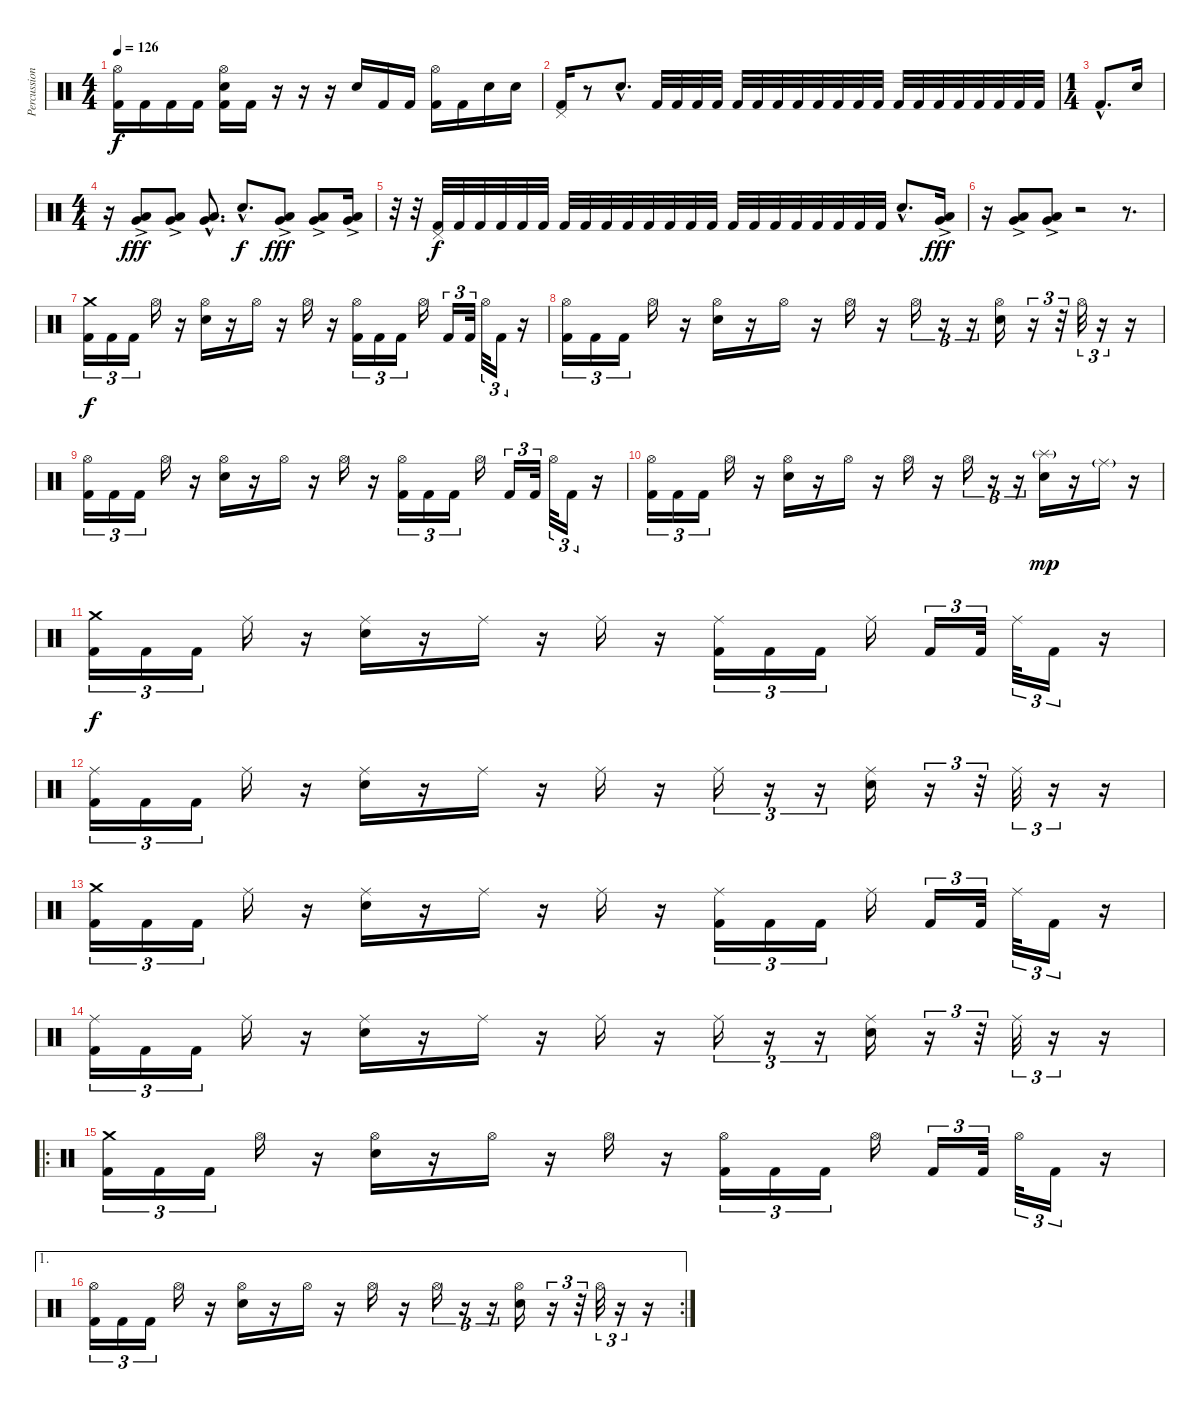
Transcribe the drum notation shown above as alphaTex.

\track ("Percussions" "Percussion") {instrument percussion}
\staff {score}
\articulation defaults
\ts (4 4)
\tempo 126
\clef neutral
\ks c
("Hi-Hat (open)" "Kick (hit) 2").16{dy f} "Kick (hit) 2".16 "Kick (hit) 2".16 "Kick (hit) 2".16 ("Hi-Hat (open)" "Electric Snare (hit)" "Kick (hit) 2").16 "Kick (hit) 2".16 r.16 r.16 r.16 "Electric Snare (hit)".16 "Kick (hit) 2".16 "Kick (hit) 2".16 ("Hi-Hat (open)" "Kick (hit) 2").16 "Kick (hit) 2".16 "Electric Snare (hit)".16 "Electric Snare (hit)".16 |
("Pedal Hi-Hat (hit)" "Kick (hit) 2").16 r.8 "Electric Snare (hit)"{hac}.8{d} "Kick (hit) 2".32 "Kick (hit) 2".32 "Kick (hit) 2".32 "Kick (hit) 2".32 "Kick (hit) 2".32 "Kick (hit) 2".32 "Kick (hit) 2".32 "Kick (hit) 2".32 "Kick (hit) 2".32 "Kick (hit) 2".32 "Kick (hit) 2".32 "Kick (hit) 2".32 "Kick (hit) 2".32 "Kick (hit) 2".32 "Kick (hit) 2".32 "Kick (hit) 2".32 "Kick (hit) 2".32 "Kick (hit) 2".32 "Kick (hit) 2".32 "Kick (hit) 2".32 |
\ts (1 4)
"Kick (hit) 2"{hac}.8{d} "Electric Snare (hit)".16 |
\ts (4 4)
r.16 ("Very Low Tom (hit)"{ac} "Low Floor Tom (hit)"{ac}).8{dy fff} ("Very Low Tom (hit)"{ac} "Low Floor Tom (hit)"{ac}).8 ("Very Low Tom (hit)"{hac} "Low Floor Tom (hit)"{hac}).8{d} "Electric Snare (hit)"{hac}.8{d dy f} ("Very Low Tom (hit)"{ac} "Low Floor Tom (hit)"{ac}).8{dy fff} ("Very Low Tom (hit)"{ac} "Low Floor Tom (hit)"{ac}).8 ("Very Low Tom (hit)"{ac} "Low Floor Tom (hit)"{ac}).16 |
r.32 r.32 ("Pedal Hi-Hat (hit)" "Kick (hit) 2").32{dy f} "Kick (hit) 2".32 "Kick (hit) 2".32 "Kick (hit) 2".32 "Kick (hit) 2".32 "Kick (hit) 2".32 "Kick (hit) 2".32 "Kick (hit) 2".32 "Kick (hit) 2".32 "Kick (hit) 2".32 "Kick (hit) 2".32 "Kick (hit) 2".32 "Kick (hit) 2".32 "Kick (hit) 2".32 "Kick (hit) 2".32 "Kick (hit) 2".32 "Kick (hit) 2".32 "Kick (hit) 2".32 "Kick (hit) 2".32 "Kick (hit) 2".32 "Kick (hit) 2".32 "Kick (hit) 2".32 "Electric Snare (hit)"{hac}.8{d} ("Very Low Tom (hit)"{ac} "Low Floor Tom (hit)"{ac}).16{dy fff} |
r.16 ("Very Low Tom (hit)"{ac} "Low Floor Tom (hit)"{ac}).8 ("Very Low Tom (hit)"{ac} "Low Floor Tom (hit)"{ac}).8 r.2 r.8{d} |
("Crash medium (hit)" "Kick (hit) 2").16{tu (3 2) dy f} "Kick (hit) 2".16{tu (3 2)} "Kick (hit) 2".16{tu (3 2)} "Hi-Hat (open)".16 r.16 ("Hi-Hat (open)" "Electric Snare (hit)").16 r.16 "Hi-Hat (open)".16 r.16 "Hi-Hat (open)".16 r.16 ("Hi-Hat (open)" "Kick (hit) 2").16{tu (3 2)} "Kick (hit) 2".16{tu (3 2)} "Kick (hit) 2".16{tu (3 2)} "Hi-Hat (open)".16 "Kick (hit) 2".16{tu (3 2)} "Kick (hit) 2".32{tu (3 2)} "Hi-Hat (open)".32{tu (3 2)} "Kick (hit) 2".16{tu (3 2)} r.16 |
("Hi-Hat (open)" "Kick (hit) 2").16{tu (3 2)} "Kick (hit) 2".16{tu (3 2)} "Kick (hit) 2".16{tu (3 2)} "Hi-Hat (open)".16 r.16 ("Hi-Hat (open)" "Electric Snare (hit)").16 r.16 "Hi-Hat (open)".16 r.16 "Hi-Hat (open)".16 r.16 "Hi-Hat (open)".16{tu (3 2)} r.16{tu (3 2)} r.16{tu (3 2)} ("Hi-Hat (open)" "Electric Snare (hit)").16 r.16{tu (3 2)} r.32{tu (3 2)} "Hi-Hat (open)".32{tu (3 2)} r.16{tu (3 2)} r.16 |
("Hi-Hat (open)" "Kick (hit) 2").16{tu (3 2)} "Kick (hit) 2".16{tu (3 2)} "Kick (hit) 2".16{tu (3 2)} "Hi-Hat (open)".16 r.16 ("Hi-Hat (open)" "Electric Snare (hit)").16 r.16 "Hi-Hat (open)".16 r.16 "Hi-Hat (open)".16 r.16 ("Hi-Hat (open)" "Kick (hit) 2").16{tu (3 2)} "Kick (hit) 2".16{tu (3 2)} "Kick (hit) 2".16{tu (3 2)} "Hi-Hat (open)".16 "Kick (hit) 2".16{tu (3 2)} "Kick (hit) 2".32{tu (3 2)} "Hi-Hat (open)".32{tu (3 2)} "Kick (hit) 2".16{tu (3 2)} r.16 |
("Hi-Hat (open)" "Kick (hit) 2").16{tu (3 2)} "Kick (hit) 2".16{tu (3 2)} "Kick (hit) 2".16{tu (3 2)} "Hi-Hat (open)".16 r.16 ("Hi-Hat (open)" "Electric Snare (hit)").16 r.16 "Hi-Hat (open)".16 r.16 "Hi-Hat (open)".16 r.16 "Hi-Hat (open)".16{tu (3 2)} r.16{tu (3 2)} r.16{tu (3 2)} ("Splash (hit)"{g} "Electric Snare (hit)").16{dy mp} r.16 "Ride (middle)"{g}.16 r.16 |
("Crash medium (hit)" "Kick (hit) 2").16{tu (3 2) dy f} "Kick (hit) 2".16{tu (3 2)} "Kick (hit) 2".16{tu (3 2)} "Ride (middle)".16 r.16 ("Ride (middle)" "Electric Snare (hit)").16 r.16 "Ride (middle)".16 r.16 "Ride (middle)".16 r.16 ("Ride (middle)" "Kick (hit) 2").16{tu (3 2)} "Kick (hit) 2".16{tu (3 2)} "Kick (hit) 2".16{tu (3 2)} "Ride (middle)".16 "Kick (hit) 2".16{tu (3 2)} "Kick (hit) 2".32{tu (3 2)} "Ride (middle)".32{tu (3 2)} "Kick (hit) 2".16{tu (3 2)} r.16 |
("Ride (middle)" "Kick (hit) 2").16{tu (3 2)} "Kick (hit) 2".16{tu (3 2)} "Kick (hit) 2".16{tu (3 2)} "Ride (middle)".16 r.16 ("Ride (middle)" "Electric Snare (hit)").16 r.16 "Ride (middle)".16 r.16 "Ride (middle)".16 r.16 "Ride (middle)".16{tu (3 2)} r.16{tu (3 2)} r.16{tu (3 2)} ("Ride (middle)" "Electric Snare (hit)").16 r.16{tu (3 2)} r.32{tu (3 2)} "Ride (middle)".32{tu (3 2)} r.16{tu (3 2)} r.16 |
("Crash medium (hit)" "Kick (hit) 2").16{tu (3 2)} "Kick (hit) 2".16{tu (3 2)} "Kick (hit) 2".16{tu (3 2)} "Ride (middle)".16 r.16 ("Ride (middle)" "Electric Snare (hit)").16 r.16 "Ride (middle)".16 r.16 "Ride (middle)".16 r.16 ("Ride (middle)" "Kick (hit) 2").16{tu (3 2)} "Kick (hit) 2".16{tu (3 2)} "Kick (hit) 2".16{tu (3 2)} "Ride (middle)".16 "Kick (hit) 2".16{tu (3 2)} "Kick (hit) 2".32{tu (3 2)} "Ride (middle)".32{tu (3 2)} "Kick (hit) 2".16{tu (3 2)} r.16 |
("Ride (middle)" "Kick (hit) 2").16{tu (3 2)} "Kick (hit) 2".16{tu (3 2)} "Kick (hit) 2".16{tu (3 2)} "Ride (middle)".16 r.16 ("Ride (middle)" "Electric Snare (hit)").16 r.16 "Ride (middle)".16 r.16 "Ride (middle)".16 r.16 "Ride (middle)".16{tu (3 2)} r.16{tu (3 2)} r.16{tu (3 2)} ("Ride (middle)" "Electric Snare (hit)").16 r.16{tu (3 2)} r.32{tu (3 2)} "Ride (middle)".32{tu (3 2)} r.16{tu (3 2)} r.16 |
\ro
("Crash medium (hit)" "Kick (hit) 2").16{tu (3 2)} "Kick (hit) 2".16{tu (3 2)} "Kick (hit) 2".16{tu (3 2)} "Hi-Hat (open)".16 r.16 ("Hi-Hat (open)" "Electric Snare (hit)").16 r.16 "Hi-Hat (open)".16 r.16 "Hi-Hat (open)".16 r.16 ("Hi-Hat (open)" "Kick (hit) 2").16{tu (3 2)} "Kick (hit) 2".16{tu (3 2)} "Kick (hit) 2".16{tu (3 2)} "Hi-Hat (open)".16 "Kick (hit) 2".16{tu (3 2)} "Kick (hit) 2".32{tu (3 2)} "Hi-Hat (open)".32{tu (3 2)} "Kick (hit) 2".16{tu (3 2)} r.16 |
\ae 1
\rc 2
("Hi-Hat (open)" "Kick (hit) 2").16{tu (3 2)} "Kick (hit) 2".16{tu (3 2)} "Kick (hit) 2".16{tu (3 2)} "Hi-Hat (open)".16 r.16 ("Hi-Hat (open)" "Electric Snare (hit)").16 r.16 "Hi-Hat (open)".16 r.16 "Hi-Hat (open)".16 r.16 "Hi-Hat (open)".16{tu (3 2)} r.16{tu (3 2)} r.16{tu (3 2)} ("Hi-Hat (open)" "Electric Snare (hit)").16 r.16{tu (3 2)} r.32{tu (3 2)} "Hi-Hat (open)".32{tu (3 2)} r.16{tu (3 2)} r.16
